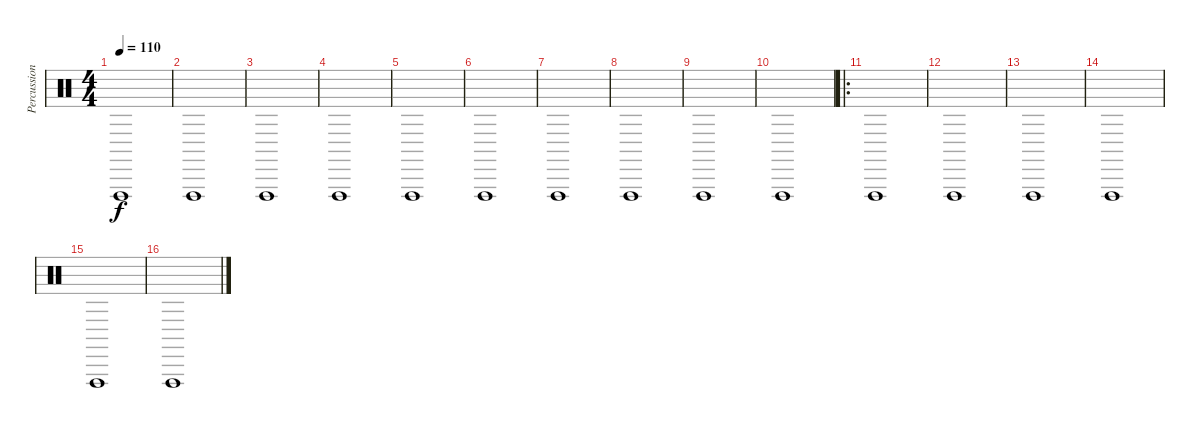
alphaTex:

\track ("Percussion" "Percussion") {instrument percussion}
\staff {score}
\articulation defaults
\ts (4 4)
\tempo 110
\clef neutral
\ks c "Vibraslap (hit)".1{dy f}
|
"Vibraslap (hit)".1 |
"Vibraslap (hit)".1 |
"Vibraslap (hit)".1 |
"Vibraslap (hit)".1 |
"Vibraslap (hit)".1 |
"Vibraslap (hit)".1 |
"Vibraslap (hit)".1 |
"Vibraslap (hit)".1 |
"Vibraslap (hit)".1 |
\ro "Vibraslap (hit)".1
|
"Vibraslap (hit)".1 |
"Vibraslap (hit)".1 |
"Vibraslap (hit)".1 |
"Vibraslap (hit)".1 |
"Vibraslap (hit)".1
